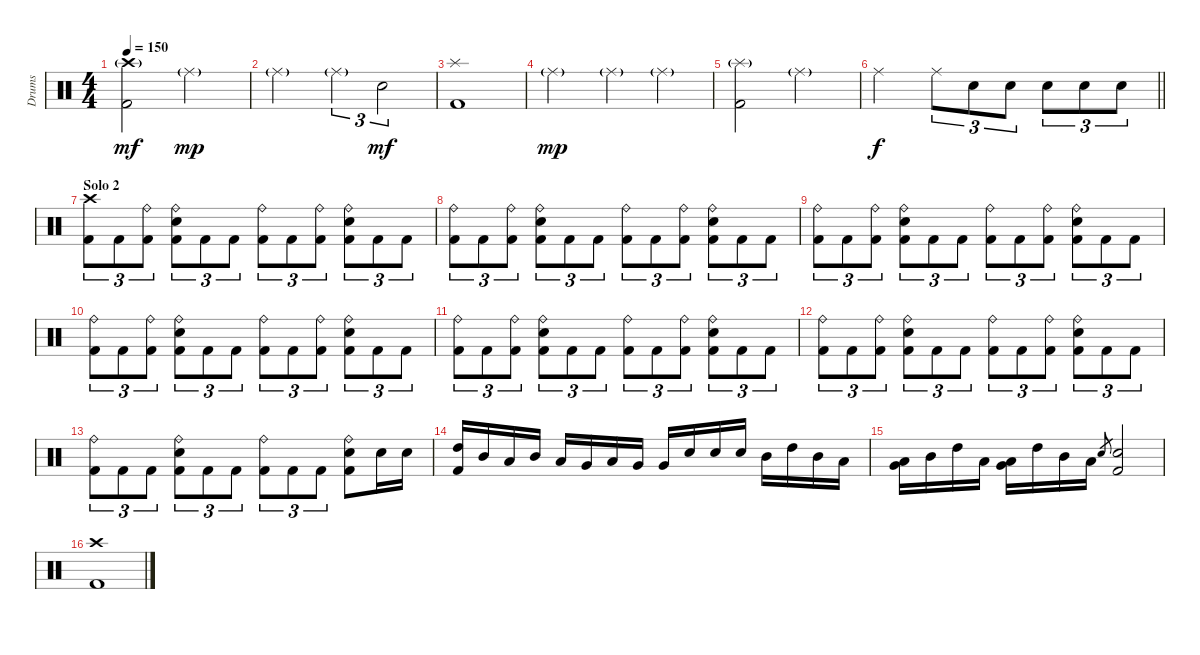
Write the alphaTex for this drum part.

\track ("Drums" "Drums") {instrument percussion}
\staff {score}
\articulation defaults
\ts (4 4)
\tempo 150
\clef neutral
\ks aminor
("Crash high (hit)"{g} "Kick (hit) 2").2{dy mf} "Ride (middle)"{g}.2{dy mp} |
"Ride (middle)"{g}.2 "Ride (middle)"{g}.4{tu (3 2)} "Electric Snare (hit)".2{tu (3 2) dy mf} |
("Splash (hit)" "Kick (hit) 2").1 |
"Ride (middle)"{g}.2{dy mp} "Ride (middle)"{g}.4 "Ride (middle)"{g}.4 |
("Splash (hit)"{g} "Kick (hit) 2").2 "Ride (middle)"{g}.2 |
\barLineRight lightlight "Ride (middle)".2{dy f} "Ride (middle)".8{tu (3 2)} "Electric Snare (hit)".8{tu (3 2)} "Electric Snare (hit)".8{tu (3 2)} "Electric Snare (hit)".8{tu (3 2)} "Electric Snare (hit)".8{tu (3 2)} "Electric Snare (hit)".8{tu (3 2)}
|
\section ("" "Solo 2")
("Crash high (hit)" "Kick (hit) 2").8{tu (3 2)} "Kick (hit) 2".8{tu (3 2)} ("Ride (bell)" "Kick (hit) 2").8{tu (3 2)} ("Ride (bell)" "Electric Snare (hit)" "Kick (hit) 2").8{tu (3 2)} "Kick (hit) 2".8{tu (3 2)} "Kick (hit) 2".8{tu (3 2)} ("Ride (bell)" "Kick (hit) 2").8{tu (3 2)} "Kick (hit) 2".8{tu (3 2)} ("Ride (bell)" "Kick (hit) 2").8{tu (3 2)} ("Ride (bell)" "Electric Snare (hit)" "Kick (hit) 2").8{tu (3 2)} "Kick (hit) 2".8{tu (3 2)} "Kick (hit) 2".8{tu (3 2)} |
("Ride (bell)" "Kick (hit) 2").8{tu (3 2)} "Kick (hit) 2".8{tu (3 2)} ("Ride (bell)" "Kick (hit) 2").8{tu (3 2)} ("Ride (bell)" "Electric Snare (hit)" "Kick (hit) 2").8{tu (3 2)} "Kick (hit) 2".8{tu (3 2)} "Kick (hit) 2".8{tu (3 2)} ("Ride (bell)" "Kick (hit) 2").8{tu (3 2)} "Kick (hit) 2".8{tu (3 2)} ("Ride (bell)" "Kick (hit) 2").8{tu (3 2)} ("Ride (bell)" "Electric Snare (hit)" "Kick (hit) 2").8{tu (3 2)} "Kick (hit) 2".8{tu (3 2)} "Kick (hit) 2".8{tu (3 2)} |
("Ride (bell)" "Kick (hit) 2").8{tu (3 2)} "Kick (hit) 2".8{tu (3 2)} ("Ride (bell)" "Kick (hit) 2").8{tu (3 2)} ("Ride (bell)" "Electric Snare (hit)" "Kick (hit) 2").8{tu (3 2)} "Kick (hit) 2".8{tu (3 2)} "Kick (hit) 2".8{tu (3 2)} ("Ride (bell)" "Kick (hit) 2").8{tu (3 2)} "Kick (hit) 2".8{tu (3 2)} ("Ride (bell)" "Kick (hit) 2").8{tu (3 2)} ("Ride (bell)" "Electric Snare (hit)" "Kick (hit) 2").8{tu (3 2)} "Kick (hit) 2".8{tu (3 2)} "Kick (hit) 2".8{tu (3 2)} |
("Ride (bell)" "Kick (hit) 2").8{tu (3 2)} "Kick (hit) 2".8{tu (3 2)} ("Ride (bell)" "Kick (hit) 2").8{tu (3 2)} ("Ride (bell)" "Electric Snare (hit)" "Kick (hit) 2").8{tu (3 2)} "Kick (hit) 2".8{tu (3 2)} "Kick (hit) 2".8{tu (3 2)} ("Ride (bell)" "Kick (hit) 2").8{tu (3 2)} "Kick (hit) 2".8{tu (3 2)} ("Ride (bell)" "Kick (hit) 2").8{tu (3 2)} ("Ride (bell)" "Electric Snare (hit)" "Kick (hit) 2").8{tu (3 2)} "Kick (hit) 2".8{tu (3 2)} "Kick (hit) 2".8{tu (3 2)} |
("Ride (bell)" "Kick (hit) 2").8{tu (3 2)} "Kick (hit) 2".8{tu (3 2)} ("Ride (bell)" "Kick (hit) 2").8{tu (3 2)} ("Ride (bell)" "Electric Snare (hit)" "Kick (hit) 2").8{tu (3 2)} "Kick (hit) 2".8{tu (3 2)} "Kick (hit) 2".8{tu (3 2)} ("Ride (bell)" "Kick (hit) 2").8{tu (3 2)} "Kick (hit) 2".8{tu (3 2)} ("Ride (bell)" "Kick (hit) 2").8{tu (3 2)} ("Ride (bell)" "Electric Snare (hit)" "Kick (hit) 2").8{tu (3 2)} "Kick (hit) 2".8{tu (3 2)} "Kick (hit) 2".8{tu (3 2)} |
("Ride (bell)" "Kick (hit) 2").8{tu (3 2)} "Kick (hit) 2".8{tu (3 2)} ("Ride (bell)" "Kick (hit) 2").8{tu (3 2)} ("Ride (bell)" "Electric Snare (hit)" "Kick (hit) 2").8{tu (3 2)} "Kick (hit) 2".8{tu (3 2)} "Kick (hit) 2".8{tu (3 2)} ("Ride (bell)" "Kick (hit) 2").8{tu (3 2)} "Kick (hit) 2".8{tu (3 2)} ("Ride (bell)" "Kick (hit) 2").8{tu (3 2)} ("Ride (bell)" "Electric Snare (hit)" "Kick (hit) 2").8{tu (3 2)} "Kick (hit) 2".8{tu (3 2)} "Kick (hit) 2".8{tu (3 2)} |
("Ride (bell)" "Kick (hit) 2").8{tu (3 2)} "Kick (hit) 2".8{tu (3 2)} "Kick (hit) 2".8{tu (3 2)} ("Ride (bell)" "Electric Snare (hit)" "Kick (hit) 2").8{tu (3 2)} "Kick (hit) 2".8{tu (3 2)} "Kick (hit) 2".8{tu (3 2)} ("Ride (bell)" "Kick (hit) 2").8{tu (3 2)} "Kick (hit) 2".8{tu (3 2)} "Kick (hit) 2".8{tu (3 2)} ("Ride (bell)" "Electric Snare (hit)" "Kick (hit) 2").8 "Electric Snare (hit)".16 "Electric Snare (hit)".16 |
("High Tom (hit)" "Kick (hit) 2").16 "Mid Tom (hit)".16 "Low Tom (hit)".16 "Mid Tom (hit)".16 "Low Tom (hit)".16 "Very Low Tom (hit)".16 "Low Tom (hit)".16 "Very Low Tom (hit)".16 "Very Low Tom (hit)".16 "Electric Snare (hit)".16 "Electric Snare (hit)".16 "Electric Snare (hit)".16 "Mid Tom (hit)".16 "High Tom (hit)".16 "Mid Tom (hit)".16 "Low Tom (hit)".16 |
("Low Tom (hit)" "Very Low Tom (hit)").16 "Mid Tom (hit)".16 "High Tom (hit)".16 "Low Tom (hit)".16 ("Low Tom (hit)" "Very Low Tom (hit)").16 "High Tom (hit)".16 "Mid Tom (hit)".16 "Low Tom (hit)".16 "Electric Snare (hit)".8{gr} ("Electric Snare (hit)" "Kick (hit) 2").2 |
("Crash high (hit)" "Kick (hit) 2").1
